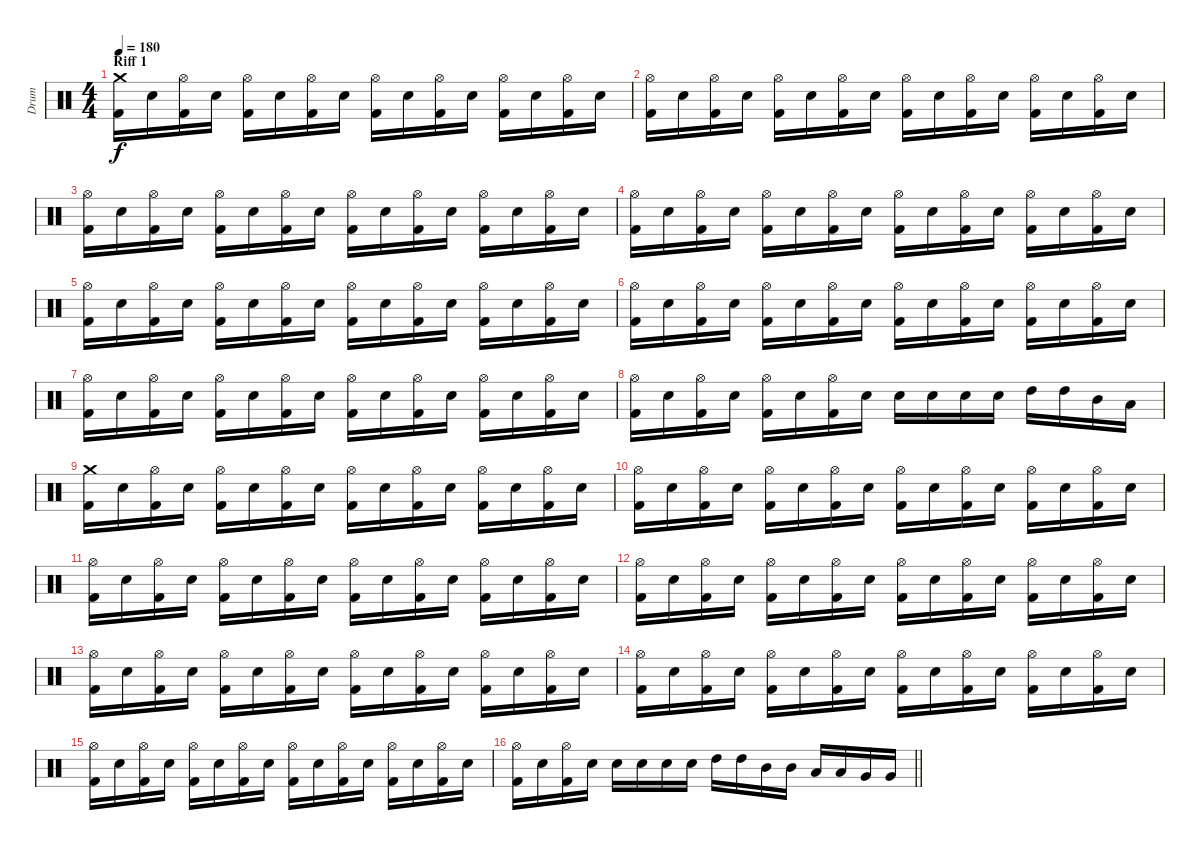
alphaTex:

\track ("Drum" "Drum") {instrument percussion}
\staff {score}
\articulation defaults
\ts (4 4)
\section ("" "Riff 1")
\tempo 180
\clef neutral
\ks c
("Crash medium (hit)" "Kick (hit) 2").16{dy f} "Electric Snare (hit)".16 ("Hi-Hat (open)" "Kick (hit) 2").16 "Electric Snare (hit)".16 ("Hi-Hat (open)" "Kick (hit) 2").16 "Electric Snare (hit)".16 ("Hi-Hat (open)" "Kick (hit) 2").16 "Electric Snare (hit)".16 ("Hi-Hat (open)" "Kick (hit) 2").16 "Electric Snare (hit)".16 ("Hi-Hat (open)" "Kick (hit) 2").16 "Electric Snare (hit)".16 ("Hi-Hat (open)" "Kick (hit) 2").16 "Electric Snare (hit)".16 ("Hi-Hat (open)" "Kick (hit) 2").16 "Electric Snare (hit)".16 |
("Hi-Hat (open)" "Kick (hit) 2").16 "Electric Snare (hit)".16 ("Hi-Hat (open)" "Kick (hit) 2").16 "Electric Snare (hit)".16 ("Hi-Hat (open)" "Kick (hit) 2").16 "Electric Snare (hit)".16 ("Hi-Hat (open)" "Kick (hit) 2").16 "Electric Snare (hit)".16 ("Hi-Hat (open)" "Kick (hit) 2").16 "Electric Snare (hit)".16 ("Hi-Hat (open)" "Kick (hit) 2").16 "Electric Snare (hit)".16 ("Hi-Hat (open)" "Kick (hit) 2").16 "Electric Snare (hit)".16 ("Hi-Hat (open)" "Kick (hit) 2").16 "Electric Snare (hit)".16 |
("Hi-Hat (open)" "Kick (hit) 2").16 "Electric Snare (hit)".16 ("Hi-Hat (open)" "Kick (hit) 2").16 "Electric Snare (hit)".16 ("Hi-Hat (open)" "Kick (hit) 2").16 "Electric Snare (hit)".16 ("Hi-Hat (open)" "Kick (hit) 2").16 "Electric Snare (hit)".16 ("Hi-Hat (open)" "Kick (hit) 2").16 "Electric Snare (hit)".16 ("Hi-Hat (open)" "Kick (hit) 2").16 "Electric Snare (hit)".16 ("Hi-Hat (open)" "Kick (hit) 2").16 "Electric Snare (hit)".16 ("Hi-Hat (open)" "Kick (hit) 2").16 "Electric Snare (hit)".16 |
("Hi-Hat (open)" "Kick (hit) 2").16 "Electric Snare (hit)".16 ("Hi-Hat (open)" "Kick (hit) 2").16 "Electric Snare (hit)".16 ("Hi-Hat (open)" "Kick (hit) 2").16 "Electric Snare (hit)".16 ("Hi-Hat (open)" "Kick (hit) 2").16 "Electric Snare (hit)".16 ("Hi-Hat (open)" "Kick (hit) 2").16 "Electric Snare (hit)".16 ("Hi-Hat (open)" "Kick (hit) 2").16 "Electric Snare (hit)".16 ("Hi-Hat (open)" "Kick (hit) 2").16 "Electric Snare (hit)".16 ("Hi-Hat (open)" "Kick (hit) 2").16 "Electric Snare (hit)".16 |
("Hi-Hat (open)" "Kick (hit) 2").16 "Electric Snare (hit)".16 ("Hi-Hat (open)" "Kick (hit) 2").16 "Electric Snare (hit)".16 ("Hi-Hat (open)" "Kick (hit) 2").16 "Electric Snare (hit)".16 ("Hi-Hat (open)" "Kick (hit) 2").16 "Electric Snare (hit)".16 ("Hi-Hat (open)" "Kick (hit) 2").16 "Electric Snare (hit)".16 ("Hi-Hat (open)" "Kick (hit) 2").16 "Electric Snare (hit)".16 ("Hi-Hat (open)" "Kick (hit) 2").16 "Electric Snare (hit)".16 ("Hi-Hat (open)" "Kick (hit) 2").16 "Electric Snare (hit)".16 |
("Hi-Hat (open)" "Kick (hit) 2").16 "Electric Snare (hit)".16 ("Hi-Hat (open)" "Kick (hit) 2").16 "Electric Snare (hit)".16 ("Hi-Hat (open)" "Kick (hit) 2").16 "Electric Snare (hit)".16 ("Hi-Hat (open)" "Kick (hit) 2").16 "Electric Snare (hit)".16 ("Hi-Hat (open)" "Kick (hit) 2").16 "Electric Snare (hit)".16 ("Hi-Hat (open)" "Kick (hit) 2").16 "Electric Snare (hit)".16 ("Hi-Hat (open)" "Kick (hit) 2").16 "Electric Snare (hit)".16 ("Hi-Hat (open)" "Kick (hit) 2").16 "Electric Snare (hit)".16 |
("Hi-Hat (open)" "Kick (hit) 2").16 "Electric Snare (hit)".16 ("Hi-Hat (open)" "Kick (hit) 2").16 "Electric Snare (hit)".16 ("Hi-Hat (open)" "Kick (hit) 2").16 "Electric Snare (hit)".16 ("Hi-Hat (open)" "Kick (hit) 2").16 "Electric Snare (hit)".16 ("Hi-Hat (open)" "Kick (hit) 2").16 "Electric Snare (hit)".16 ("Hi-Hat (open)" "Kick (hit) 2").16 "Electric Snare (hit)".16 ("Hi-Hat (open)" "Kick (hit) 2").16 "Electric Snare (hit)".16 ("Hi-Hat (open)" "Kick (hit) 2").16 "Electric Snare (hit)".16 |
("Hi-Hat (open)" "Kick (hit) 2").16 "Electric Snare (hit)".16 ("Hi-Hat (open)" "Kick (hit) 2").16 "Electric Snare (hit)".16 ("Hi-Hat (open)" "Kick (hit) 2").16 "Electric Snare (hit)".16 ("Hi-Hat (open)" "Kick (hit) 2").16 "Electric Snare (hit)".16 "Electric Snare (hit)".16 "Electric Snare (hit)".16 "Electric Snare (hit)".16 "Electric Snare (hit)".16 "High Tom (hit)".16 "High Tom (hit)".16 "Mid Tom (hit)".16 "Low Tom (hit)".16 |
("Crash medium (hit)" "Kick (hit) 2").16 "Electric Snare (hit)".16 ("Hi-Hat (open)" "Kick (hit) 2").16 "Electric Snare (hit)".16 ("Hi-Hat (open)" "Kick (hit) 2").16 "Electric Snare (hit)".16 ("Hi-Hat (open)" "Kick (hit) 2").16 "Electric Snare (hit)".16 ("Hi-Hat (open)" "Kick (hit) 2").16 "Electric Snare (hit)".16 ("Hi-Hat (open)" "Kick (hit) 2").16 "Electric Snare (hit)".16 ("Hi-Hat (open)" "Kick (hit) 2").16 "Electric Snare (hit)".16 ("Hi-Hat (open)" "Kick (hit) 2").16 "Electric Snare (hit)".16 |
("Hi-Hat (open)" "Kick (hit) 2").16 "Electric Snare (hit)".16 ("Hi-Hat (open)" "Kick (hit) 2").16 "Electric Snare (hit)".16 ("Hi-Hat (open)" "Kick (hit) 2").16 "Electric Snare (hit)".16 ("Hi-Hat (open)" "Kick (hit) 2").16 "Electric Snare (hit)".16 ("Hi-Hat (open)" "Kick (hit) 2").16 "Electric Snare (hit)".16 ("Hi-Hat (open)" "Kick (hit) 2").16 "Electric Snare (hit)".16 ("Hi-Hat (open)" "Kick (hit) 2").16 "Electric Snare (hit)".16 ("Hi-Hat (open)" "Kick (hit) 2").16 "Electric Snare (hit)".16 |
("Hi-Hat (open)" "Kick (hit) 2").16 "Electric Snare (hit)".16 ("Hi-Hat (open)" "Kick (hit) 2").16 "Electric Snare (hit)".16 ("Hi-Hat (open)" "Kick (hit) 2").16 "Electric Snare (hit)".16 ("Hi-Hat (open)" "Kick (hit) 2").16 "Electric Snare (hit)".16 ("Hi-Hat (open)" "Kick (hit) 2").16 "Electric Snare (hit)".16 ("Hi-Hat (open)" "Kick (hit) 2").16 "Electric Snare (hit)".16 ("Hi-Hat (open)" "Kick (hit) 2").16 "Electric Snare (hit)".16 ("Hi-Hat (open)" "Kick (hit) 2").16 "Electric Snare (hit)".16 |
("Hi-Hat (open)" "Kick (hit) 2").16 "Electric Snare (hit)".16 ("Hi-Hat (open)" "Kick (hit) 2").16 "Electric Snare (hit)".16 ("Hi-Hat (open)" "Kick (hit) 2").16 "Electric Snare (hit)".16 ("Hi-Hat (open)" "Kick (hit) 2").16 "Electric Snare (hit)".16 ("Hi-Hat (open)" "Kick (hit) 2").16 "Electric Snare (hit)".16 ("Hi-Hat (open)" "Kick (hit) 2").16 "Electric Snare (hit)".16 ("Hi-Hat (open)" "Kick (hit) 2").16 "Electric Snare (hit)".16 ("Hi-Hat (open)" "Kick (hit) 2").16 "Electric Snare (hit)".16 |
("Hi-Hat (open)" "Kick (hit) 2").16 "Electric Snare (hit)".16 ("Hi-Hat (open)" "Kick (hit) 2").16 "Electric Snare (hit)".16 ("Hi-Hat (open)" "Kick (hit) 2").16 "Electric Snare (hit)".16 ("Hi-Hat (open)" "Kick (hit) 2").16 "Electric Snare (hit)".16 ("Hi-Hat (open)" "Kick (hit) 2").16 "Electric Snare (hit)".16 ("Hi-Hat (open)" "Kick (hit) 2").16 "Electric Snare (hit)".16 ("Hi-Hat (open)" "Kick (hit) 2").16 "Electric Snare (hit)".16 ("Hi-Hat (open)" "Kick (hit) 2").16 "Electric Snare (hit)".16 |
("Hi-Hat (open)" "Kick (hit) 2").16 "Electric Snare (hit)".16 ("Hi-Hat (open)" "Kick (hit) 2").16 "Electric Snare (hit)".16 ("Hi-Hat (open)" "Kick (hit) 2").16 "Electric Snare (hit)".16 ("Hi-Hat (open)" "Kick (hit) 2").16 "Electric Snare (hit)".16 ("Hi-Hat (open)" "Kick (hit) 2").16 "Electric Snare (hit)".16 ("Hi-Hat (open)" "Kick (hit) 2").16 "Electric Snare (hit)".16 ("Hi-Hat (open)" "Kick (hit) 2").16 "Electric Snare (hit)".16 ("Hi-Hat (open)" "Kick (hit) 2").16 "Electric Snare (hit)".16 |
("Hi-Hat (open)" "Kick (hit) 2").16 "Electric Snare (hit)".16 ("Hi-Hat (open)" "Kick (hit) 2").16 "Electric Snare (hit)".16 ("Hi-Hat (open)" "Kick (hit) 2").16 "Electric Snare (hit)".16 ("Hi-Hat (open)" "Kick (hit) 2").16 "Electric Snare (hit)".16 ("Hi-Hat (open)" "Kick (hit) 2").16 "Electric Snare (hit)".16 ("Hi-Hat (open)" "Kick (hit) 2").16 "Electric Snare (hit)".16 ("Hi-Hat (open)" "Kick (hit) 2").16 "Electric Snare (hit)".16 ("Hi-Hat (open)" "Kick (hit) 2").16 "Electric Snare (hit)".16 |
\barLineRight lightlight
("Hi-Hat (open)" "Kick (hit) 2").16 "Electric Snare (hit)".16 ("Hi-Hat (open)" "Kick (hit) 2").16 "Electric Snare (hit)".16 "Electric Snare (hit)".16 "Electric Snare (hit)".16 "Electric Snare (hit)".16 "Electric Snare (hit)".16 "High Tom (hit)".16 "High Tom (hit)".16 "Mid Tom (hit)".16 "Mid Tom (hit)".16 "Low Tom (hit)".16 "Low Tom (hit)".16 "Very Low Tom (hit)".16 "Very Low Tom (hit)".16
